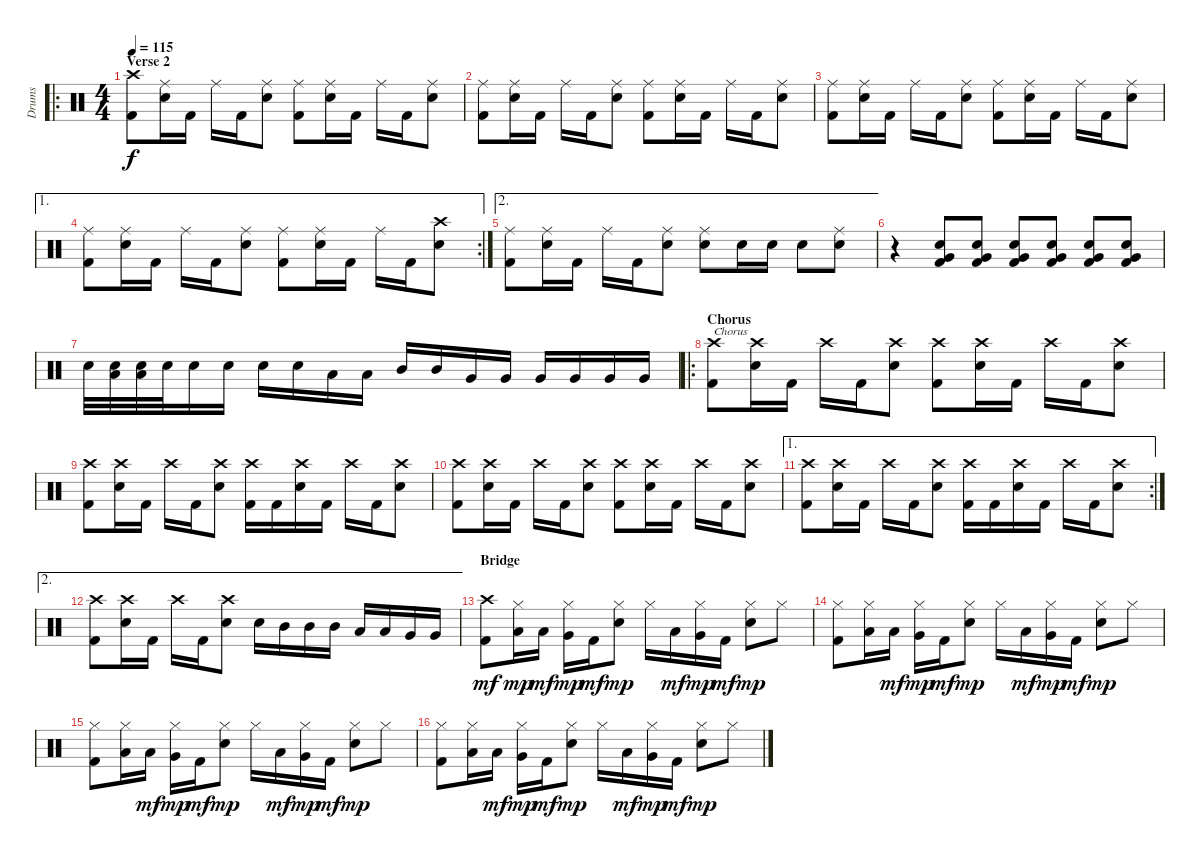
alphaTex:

\track ("Drums" "Drums") {instrument percussion}
\staff {score}
\articulation defaults
\ro
\ts (4 4)
\section ("" "Verse 2")
\tempo 115
\clef neutral
\ks c
("Kick (hit) 2" "Crash high (hit)").8{dy f} ("Ride (middle)" "Snare (hit) 2").16 "Kick (hit) 2".16 "Ride (middle)".16 "Kick (hit) 2".16 ("Ride (middle)" "Snare (hit) 2").8 ("Kick (hit) 2" "Ride (middle)").8 ("Ride (middle)" "Snare (hit) 2").16 "Kick (hit) 2".16 "Ride (middle)".16 "Kick (hit) 2".16 ("Ride (middle)" "Snare (hit) 2").8 |
("Kick (hit) 2" "Ride (middle)").8 ("Ride (middle)" "Snare (hit) 2").16 "Kick (hit) 2".16 "Ride (middle)".16 "Kick (hit) 2".16 ("Ride (middle)" "Snare (hit) 2").8 ("Kick (hit) 2" "Ride (middle)").8 ("Ride (middle)" "Snare (hit) 2").16 "Kick (hit) 2".16 "Ride (middle)".16 "Kick (hit) 2".16 ("Ride (middle)" "Snare (hit) 2").8 |
("Kick (hit) 2" "Ride (middle)").8 ("Ride (middle)" "Snare (hit) 2").16 "Kick (hit) 2".16 "Ride (middle)".16 "Kick (hit) 2".16 ("Ride (middle)" "Snare (hit) 2").8 ("Kick (hit) 2" "Ride (middle)").8 ("Ride (middle)" "Snare (hit) 2").16 "Kick (hit) 2".16 "Ride (middle)".16 "Kick (hit) 2".16 ("Ride (middle)" "Snare (hit) 2").8 |
\ae 1
\rc 2
("Kick (hit) 2" "Ride (middle)").8 ("Ride (middle)" "Snare (hit) 2").16 "Kick (hit) 2".16 "Ride (middle)".16 "Kick (hit) 2".16 ("Ride (middle)" "Snare (hit) 2").8 ("Kick (hit) 2" "Ride (middle)").8 ("Ride (middle)" "Snare (hit) 2").16 "Kick (hit) 2".16 "Ride (middle)".16 "Kick (hit) 2".16 ("Crash high (hit)" "Snare (hit) 2").8 |
\ae 2
("Kick (hit) 2" "Ride (middle)").8 ("Ride (middle)" "Snare (hit) 2").16 "Kick (hit) 2".16 "Ride (middle)".16 "Kick (hit) 2".16 ("Ride (middle)" "Snare (hit) 2").8 ("Ride (middle)" "Snare (hit) 2").8 "Snare (hit) 2".16 "Snare (hit) 2".16 "Snare (hit) 2".8 ("Ride (middle)" "Snare (hit) 2").8 |
r.4 ("Kick (hit) 2" "Snare (hit) 2" "Very Low Tom (hit)").8 ("Kick (hit) 2" "Snare (hit) 2" "Very Low Tom (hit)").8 ("Kick (hit) 2" "Snare (hit) 2" "Very Low Tom (hit)").8 ("Kick (hit) 2" "Snare (hit) 2" "Very Low Tom (hit)").8 ("Kick (hit) 2" "Snare (hit) 2" "Very Low Tom (hit)").8 ("Kick (hit) 2" "Snare (hit) 2" "Very Low Tom (hit)").8 |
"Snare (hit) 2".32 ("Snare (hit) 2" "Low Tom (hit)").32 ("Snare (hit) 2" "Low Tom (hit)").32 "Snare (hit) 2".32 "Snare (hit) 2".16 "Snare (hit) 2".16 "Snare (hit) 2".16 "Snare (hit) 2".16 "Low Tom (hit)".16 "Low Tom (hit)".16 "Mid Tom (hit)".16 "Mid Tom (hit)".16 "Very Low Tom (hit)".16 "Very Low Tom (hit)".16 "Very Low Tom (hit)".16 "Very Low Tom (hit)".16 "Very Low Tom (hit)".16 "Very Low Tom (hit)".16 |
\ro
\section ("" "Chorus")
("Kick (hit) 2" "Crash high (hit)").8{txt "Chorus"} ("Crash high (hit)" "Snare (hit) 2").16 "Kick (hit) 2".16 "Crash high (hit)".16 "Kick (hit) 2".16 ("Crash high (hit)" "Snare (hit) 2").8 ("Kick (hit) 2" "Crash high (hit)").8 ("Crash high (hit)" "Snare (hit) 2").16 "Kick (hit) 2".16 "Crash high (hit)".16 "Kick (hit) 2".16 ("Crash high (hit)" "Snare (hit) 2").8 |
("Kick (hit) 2" "Crash high (hit)").8 ("Crash high (hit)" "Snare (hit) 2").16 "Kick (hit) 2".16 "Crash high (hit)".16 "Kick (hit) 2".16 ("Crash high (hit)" "Snare (hit) 2").8 ("Kick (hit) 2" "Crash high (hit)").16 "Kick (hit) 2".16 ("Crash high (hit)" "Snare (hit) 2").16 "Kick (hit) 2".16 "Crash high (hit)".16 "Kick (hit) 2".16 ("Crash high (hit)" "Snare (hit) 2").8 |
("Kick (hit) 2" "Crash high (hit)").8 ("Crash high (hit)" "Snare (hit) 2").16 "Kick (hit) 2".16 "Crash high (hit)".16 "Kick (hit) 2".16 ("Crash high (hit)" "Snare (hit) 2").8 ("Kick (hit) 2" "Crash high (hit)").8 ("Crash high (hit)" "Snare (hit) 2").16 "Kick (hit) 2".16 "Crash high (hit)".16 "Kick (hit) 2".16 ("Crash high (hit)" "Snare (hit) 2").8 |
\ae 1
\rc 2
("Kick (hit) 2" "Crash high (hit)").8 ("Crash high (hit)" "Snare (hit) 2").16 "Kick (hit) 2".16 "Crash high (hit)".16 "Kick (hit) 2".16 ("Crash high (hit)" "Snare (hit) 2").8 ("Kick (hit) 2" "Crash high (hit)").16 "Kick (hit) 2".16 ("Crash high (hit)" "Snare (hit) 2").16 "Kick (hit) 2".16 "Crash high (hit)".16 "Kick (hit) 2".16 ("Crash high (hit)" "Snare (hit) 2").8 |
\ae 2
("Kick (hit) 2" "Crash high (hit)").8 ("Crash high (hit)" "Snare (hit) 2").16 "Kick (hit) 2".16 "Crash high (hit)".16 "Kick (hit) 2".16 ("Crash high (hit)" "Snare (hit) 2").8 "Snare (hit) 2".16 "Mid Tom (hit)".16 "Mid Tom (hit)".16 "Mid Tom (hit)".16 "Low Tom (hit)".16 "Low Tom (hit)".16 "Very Low Tom (hit)".16 "Very Low Tom (hit)".16 |
\section ("" "Bridge")
("Kick (hit) 2" "Crash high (hit)").8{dy mf} ("Low Tom (hit)" "Hi-Hat (closed)").16{dy mp} "Low Tom (hit)".16{dy mf} ("Very Low Tom (hit)" "Hi-Hat (closed)").16{dy mp} "Kick (hit) 2".16{dy mf} ("Snare (hit) 2" "Hi-Hat (closed)").8{dy mp} "Hi-Hat (closed)".16 "Low Tom (hit)".16{dy mf} ("Very Low Tom (hit)" "Hi-Hat (closed)").16{dy mp} "Kick (hit) 2".16{dy mf} ("Snare (hit) 2" "Hi-Hat (closed)").8{dy mp} "Hi-Hat (closed)".8 |
("Kick (hit) 2" "Hi-Hat (closed)").8 ("Low Tom (hit)" "Hi-Hat (closed)").16 "Low Tom (hit)".16{dy mf} ("Very Low Tom (hit)" "Hi-Hat (closed)").16{dy mp} "Kick (hit) 2".16{dy mf} ("Snare (hit) 2" "Hi-Hat (closed)").8{dy mp} "Hi-Hat (closed)".16 "Low Tom (hit)".16{dy mf} ("Very Low Tom (hit)" "Hi-Hat (closed)").16{dy mp} "Kick (hit) 2".16{dy mf} ("Snare (hit) 2" "Hi-Hat (closed)").8{dy mp} "Hi-Hat (closed)".8 |
("Kick (hit) 2" "Hi-Hat (closed)").8 ("Low Tom (hit)" "Hi-Hat (closed)").16 "Low Tom (hit)".16{dy mf} ("Very Low Tom (hit)" "Hi-Hat (closed)").16{dy mp} "Kick (hit) 2".16{dy mf} ("Snare (hit) 2" "Hi-Hat (closed)").8{dy mp} "Hi-Hat (closed)".16 "Low Tom (hit)".16{dy mf} ("Very Low Tom (hit)" "Hi-Hat (closed)").16{dy mp} "Kick (hit) 2".16{dy mf} ("Snare (hit) 2" "Hi-Hat (closed)").8{dy mp} "Hi-Hat (closed)".8 |
("Kick (hit) 2" "Hi-Hat (closed)").8 ("Low Tom (hit)" "Hi-Hat (closed)").16 "Low Tom (hit)".16{dy mf} ("Very Low Tom (hit)" "Hi-Hat (closed)").16{dy mp} "Kick (hit) 2".16{dy mf} ("Snare (hit) 2" "Hi-Hat (closed)").8{dy mp} "Hi-Hat (closed)".16 "Low Tom (hit)".16{dy mf} ("Very Low Tom (hit)" "Hi-Hat (closed)").16{dy mp} "Kick (hit) 2".16{dy mf} ("Snare (hit) 2" "Hi-Hat (closed)").8{dy mp} "Hi-Hat (closed)".8
